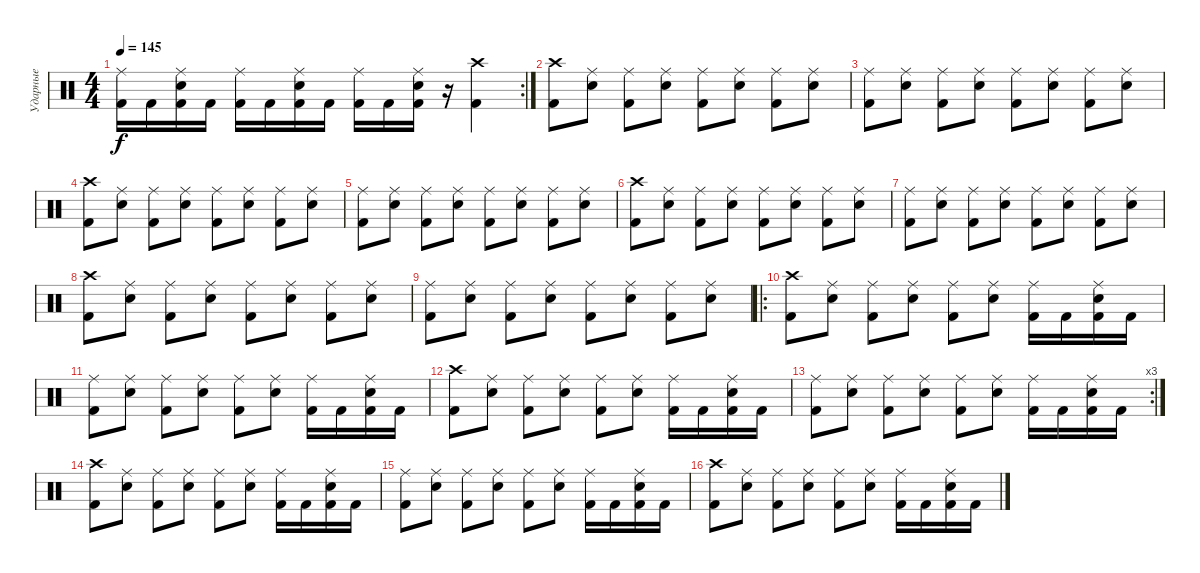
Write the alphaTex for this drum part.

\track ("Ударные" "Ударные") {instrument percussion}
\staff {score}
\articulation defaults
\rc 2
\ts (4 4)
\tempo 145
\clef neutral
\ks c
("Ride (middle)" "Kick (hit) 2").16{dy f} "Kick (hit) 2".16 ("Electric Snare (hit)" "Ride (middle)" "Kick (hit) 2").16 "Kick (hit) 2".16 ("Ride (middle)" "Kick (hit) 2").16 "Kick (hit) 2".16 ("Electric Snare (hit)" "Ride (middle)" "Kick (hit) 2").16 "Kick (hit) 2".16 ("Ride (middle)" "Kick (hit) 2").16 "Kick (hit) 2".16 ("Electric Snare (hit)" "Ride (middle)" "Kick (hit) 2").16 r.16 ("Kick (hit) 2" "Crash high (hit)").4 |
("Kick (hit) 2" "Crash high (hit)").8 ("Electric Snare (hit)" "Ride (middle)").8 ("Kick (hit) 2" "Ride (middle)").8 ("Electric Snare (hit)" "Ride (middle)").8 ("Kick (hit) 2" "Ride (middle)").8 ("Electric Snare (hit)" "Ride (middle)").8 ("Kick (hit) 2" "Ride (middle)").8 ("Electric Snare (hit)" "Ride (middle)").8 |
("Kick (hit) 2" "Ride (middle)").8 ("Electric Snare (hit)" "Ride (middle)").8 ("Kick (hit) 2" "Ride (middle)").8 ("Electric Snare (hit)" "Ride (middle)").8 ("Kick (hit) 2" "Ride (middle)").8 ("Electric Snare (hit)" "Ride (middle)").8 ("Kick (hit) 2" "Ride (middle)").8 ("Electric Snare (hit)" "Ride (middle)").8 |
("Kick (hit) 2" "Crash high (hit)").8 ("Electric Snare (hit)" "Ride (middle)").8 ("Kick (hit) 2" "Ride (middle)").8 ("Electric Snare (hit)" "Ride (middle)").8 ("Kick (hit) 2" "Ride (middle)").8 ("Electric Snare (hit)" "Ride (middle)").8 ("Kick (hit) 2" "Ride (middle)").8 ("Electric Snare (hit)" "Ride (middle)").8 |
("Kick (hit) 2" "Ride (middle)").8 ("Electric Snare (hit)" "Ride (middle)").8 ("Kick (hit) 2" "Ride (middle)").8 ("Electric Snare (hit)" "Ride (middle)").8 ("Kick (hit) 2" "Ride (middle)").8 ("Electric Snare (hit)" "Ride (middle)").8 ("Kick (hit) 2" "Ride (middle)").8 ("Electric Snare (hit)" "Ride (middle)").8 |
("Kick (hit) 2" "Crash high (hit)").8 ("Electric Snare (hit)" "Ride (middle)").8 ("Kick (hit) 2" "Ride (middle)").8 ("Electric Snare (hit)" "Ride (middle)").8 ("Kick (hit) 2" "Ride (middle)").8 ("Electric Snare (hit)" "Ride (middle)").8 ("Kick (hit) 2" "Ride (middle)").8 ("Electric Snare (hit)" "Ride (middle)").8 |
("Kick (hit) 2" "Ride (middle)").8 ("Electric Snare (hit)" "Ride (middle)").8 ("Kick (hit) 2" "Ride (middle)").8 ("Electric Snare (hit)" "Ride (middle)").8 ("Kick (hit) 2" "Ride (middle)").8 ("Electric Snare (hit)" "Ride (middle)").8 ("Kick (hit) 2" "Ride (middle)").8 ("Electric Snare (hit)" "Ride (middle)").8 |
("Kick (hit) 2" "Crash high (hit)").8 ("Electric Snare (hit)" "Ride (middle)").8 ("Kick (hit) 2" "Ride (middle)").8 ("Electric Snare (hit)" "Ride (middle)").8 ("Kick (hit) 2" "Ride (middle)").8 ("Electric Snare (hit)" "Ride (middle)").8 ("Kick (hit) 2" "Ride (middle)").8 ("Electric Snare (hit)" "Ride (middle)").8 |
("Kick (hit) 2" "Ride (middle)").8 ("Electric Snare (hit)" "Ride (middle)").8 ("Kick (hit) 2" "Ride (middle)").8 ("Electric Snare (hit)" "Ride (middle)").8 ("Kick (hit) 2" "Ride (middle)").8 ("Electric Snare (hit)" "Ride (middle)").8 ("Kick (hit) 2" "Ride (middle)").8 ("Electric Snare (hit)" "Ride (middle)").8 |
\ro
("Kick (hit) 2" "Crash high (hit)").8 ("Electric Snare (hit)" "Ride (middle)").8 ("Kick (hit) 2" "Ride (middle)").8 ("Electric Snare (hit)" "Ride (middle)").8 ("Kick (hit) 2" "Ride (middle)").8 ("Electric Snare (hit)" "Ride (middle)").8 ("Kick (hit) 2" "Ride (middle)").16 "Kick (hit) 2".16 ("Kick (hit) 2" "Ride (middle)" "Electric Snare (hit)").16 "Kick (hit) 2".16 |
("Kick (hit) 2" "Ride (middle)").8 ("Electric Snare (hit)" "Ride (middle)").8 ("Kick (hit) 2" "Ride (middle)").8 ("Electric Snare (hit)" "Ride (middle)").8 ("Kick (hit) 2" "Ride (middle)").8 ("Electric Snare (hit)" "Ride (middle)").8 ("Kick (hit) 2" "Ride (middle)").16 "Kick (hit) 2".16 ("Kick (hit) 2" "Ride (middle)" "Electric Snare (hit)").16 "Kick (hit) 2".16 |
("Kick (hit) 2" "Crash high (hit)").8 ("Electric Snare (hit)" "Ride (middle)").8 ("Kick (hit) 2" "Ride (middle)").8 ("Electric Snare (hit)" "Ride (middle)").8 ("Kick (hit) 2" "Ride (middle)").8 ("Electric Snare (hit)" "Ride (middle)").8 ("Kick (hit) 2" "Ride (middle)").16 "Kick (hit) 2".16 ("Kick (hit) 2" "Ride (middle)" "Electric Snare (hit)").16 "Kick (hit) 2".16 |
\rc 3
("Kick (hit) 2" "Ride (middle)").8 ("Electric Snare (hit)" "Ride (middle)").8 ("Kick (hit) 2" "Ride (middle)").8 ("Electric Snare (hit)" "Ride (middle)").8 ("Kick (hit) 2" "Ride (middle)").8 ("Electric Snare (hit)" "Ride (middle)").8 ("Kick (hit) 2" "Ride (middle)").16 "Kick (hit) 2".16 ("Kick (hit) 2" "Ride (middle)" "Electric Snare (hit)").16 "Kick (hit) 2".16 |
("Kick (hit) 2" "Crash high (hit)").8 ("Electric Snare (hit)" "Ride (middle)").8 ("Kick (hit) 2" "Ride (middle)").8 ("Electric Snare (hit)" "Ride (middle)").8 ("Kick (hit) 2" "Ride (middle)").8 ("Electric Snare (hit)" "Ride (middle)").8 ("Kick (hit) 2" "Ride (middle)").16 "Kick (hit) 2".16 ("Kick (hit) 2" "Ride (middle)" "Electric Snare (hit)").16 "Kick (hit) 2".16 |
("Kick (hit) 2" "Ride (middle)").8 ("Electric Snare (hit)" "Ride (middle)").8 ("Kick (hit) 2" "Ride (middle)").8 ("Electric Snare (hit)" "Ride (middle)").8 ("Kick (hit) 2" "Ride (middle)").8 ("Electric Snare (hit)" "Ride (middle)").8 ("Kick (hit) 2" "Ride (middle)").16 "Kick (hit) 2".16 ("Kick (hit) 2" "Ride (middle)" "Electric Snare (hit)").16 "Kick (hit) 2".16 |
("Kick (hit) 2" "Crash high (hit)").8 ("Electric Snare (hit)" "Ride (middle)").8 ("Kick (hit) 2" "Ride (middle)").8 ("Electric Snare (hit)" "Ride (middle)").8 ("Kick (hit) 2" "Ride (middle)").8 ("Electric Snare (hit)" "Ride (middle)").8 ("Kick (hit) 2" "Ride (middle)").16 "Kick (hit) 2".16 ("Kick (hit) 2" "Ride (middle)" "Electric Snare (hit)").16 "Kick (hit) 2".16
